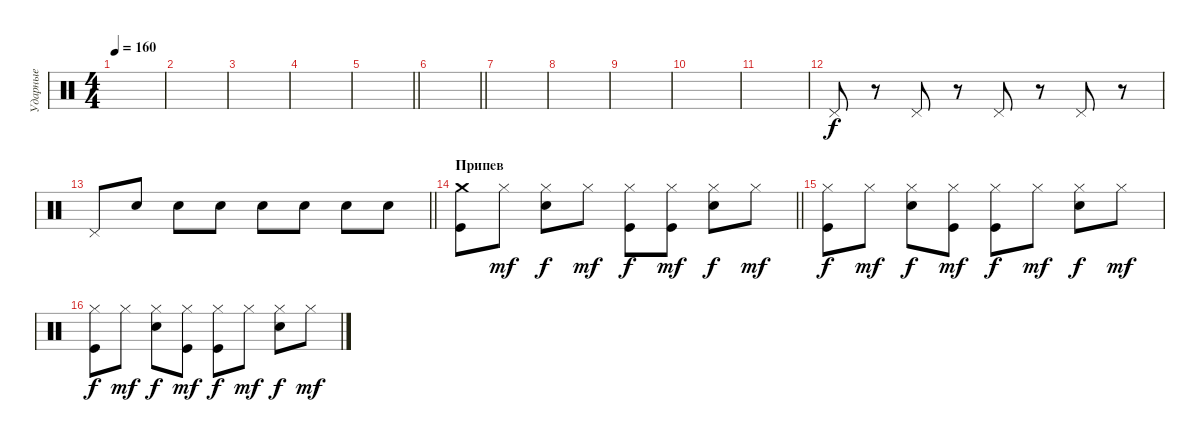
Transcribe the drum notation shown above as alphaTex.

\track ("Ударные" "Ударные") {instrument percussion}
\staff {score}
\articulation defaults
\ts (4 4)
\tempo 160
\clef neutral
\ks c
|
|
|
|
\barLineRight lightlight
|
\section ("" " ")
\barLineRight lightlight
|
|
|
|
|
|
"Pedal Hi-Hat (hit)".8 r.8 "Pedal Hi-Hat (hit)".8 r.8 "Pedal Hi-Hat (hit)".8 r.8 "Pedal Hi-Hat (hit)".8 r.8 |
\barLineRight lightlight "Pedal Hi-Hat (hit)".8 "Electric Snare (hit)".8 "Electric Snare (hit)".8 "Electric Snare (hit)".8 "Electric Snare (hit)".8 "Electric Snare (hit)".8 "Electric Snare (hit)".8 "Electric Snare (hit)".8
|
\section ("" "Припев")
\barLineRight lightlight
("Crash medium (hit)" "Kick (hit)").8 "Hi-Hat (closed)".8{dy mf} ("Hi-Hat (closed)" "Electric Snare (hit)").8{dy f} "Hi-Hat (closed)".8{dy mf} ("Hi-Hat (closed)" "Kick (hit)").8{dy f} ("Hi-Hat (closed)" "Kick (hit)").8{dy mf} ("Hi-Hat (closed)" "Electric Snare (hit)").8{dy f} "Hi-Hat (closed)".8{dy mf} |
("Hi-Hat (closed)" "Kick (hit)").8{dy f} "Hi-Hat (closed)".8{dy mf} ("Hi-Hat (closed)" "Electric Snare (hit)").8{dy f} ("Hi-Hat (closed)" "Kick (hit)").8{dy mf} ("Hi-Hat (closed)" "Kick (hit)").8{dy f} "Hi-Hat (closed)".8{dy mf} ("Hi-Hat (closed)" "Electric Snare (hit)").8{dy f} "Hi-Hat (closed)".8{dy mf} |
("Hi-Hat (closed)" "Kick (hit)").8{dy f} "Hi-Hat (closed)".8{dy mf} ("Hi-Hat (closed)" "Electric Snare (hit)").8{dy f} ("Hi-Hat (closed)" "Kick (hit)").8{dy mf} ("Hi-Hat (closed)" "Kick (hit)").8{dy f} "Hi-Hat (closed)".8{dy mf} ("Hi-Hat (closed)" "Electric Snare (hit)").8{dy f} "Hi-Hat (closed)".8{dy mf}
